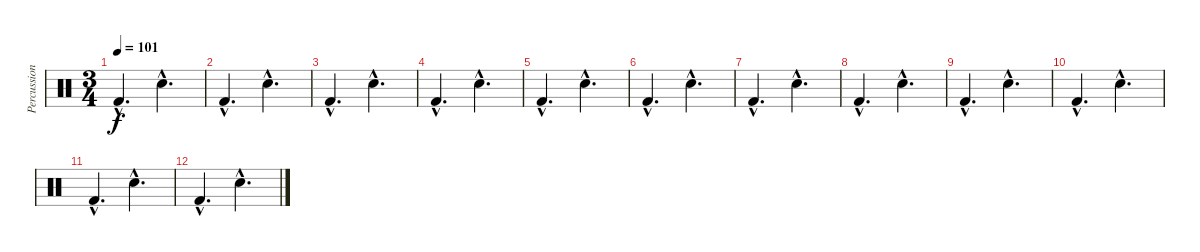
\track ("Percussions" "Percussion") {instrument percussion}
\staff {score}
\articulation defaults
\ts (3 4)
\tempo 101
\clef neutral
\ks c "Kick (hit) 2"{hac}.4{d dy f} "Electric Snare (hit)"{hac}.4{d}
|
"Kick (hit) 2"{hac}.4{d} "Electric Snare (hit)"{hac}.4{d} |
"Kick (hit) 2"{hac}.4{d} "Electric Snare (hit)"{hac}.4{d} |
"Kick (hit) 2"{hac}.4{d} "Electric Snare (hit)"{hac}.4{d} |
"Kick (hit) 2"{hac}.4{d} "Electric Snare (hit)"{hac}.4{d} |
"Kick (hit) 2"{hac}.4{d} "Electric Snare (hit)"{hac}.4{d} |
"Kick (hit) 2"{hac}.4{d} "Electric Snare (hit)"{hac}.4{d} |
"Kick (hit) 2"{hac}.4{d} "Electric Snare (hit)"{hac}.4{d} |
"Kick (hit) 2"{hac}.4{d} "Electric Snare (hit)"{hac}.4{d} |
"Kick (hit) 2"{hac}.4{d} "Electric Snare (hit)"{hac}.4{d} |
"Kick (hit) 2"{hac}.4{d} "Electric Snare (hit)"{hac}.4{d} |
"Kick (hit) 2"{hac}.4{d} "Electric Snare (hit)"{hac}.4{d}
